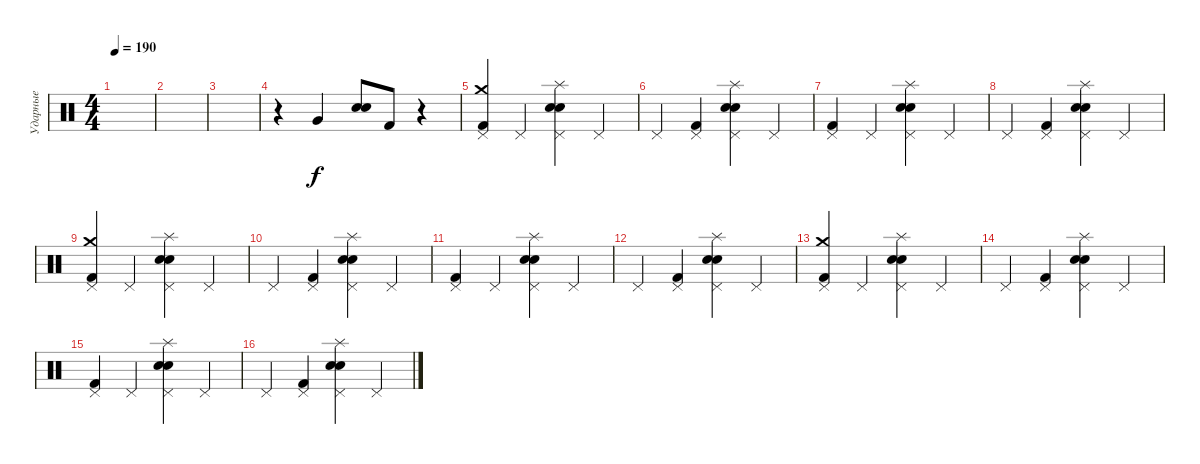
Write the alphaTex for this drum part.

\track ("Ударные" "Ударные") {instrument percussion}
\staff {score}
\articulation defaults
\ts (4 4)
\tempo 190
\clef neutral
\ks c
|
|
|
r.4 "Very Low Tom (hit)".4 ("Electric Snare (hit)" "Snare (hit) 2").8 "Kick (hit) 2".8 r.4 |
("Crash medium (hit)" "Pedal Hi-Hat (hit)" "Kick (hit) 2").4 "Pedal Hi-Hat (hit)".4 ("Splash (hit)" "Pedal Hi-Hat (hit)" "Electric Snare (hit)" "Snare (hit) 2").4 "Pedal Hi-Hat (hit)".4 |
"Pedal Hi-Hat (hit)".4 ("Pedal Hi-Hat (hit)" "Kick (hit) 2").4 ("Splash (hit)" "Pedal Hi-Hat (hit)" "Electric Snare (hit)" "Snare (hit) 2").4 "Pedal Hi-Hat (hit)".4 |
("Pedal Hi-Hat (hit)" "Kick (hit) 2").4 "Pedal Hi-Hat (hit)".4 ("Splash (hit)" "Pedal Hi-Hat (hit)" "Electric Snare (hit)" "Snare (hit) 2").4 "Pedal Hi-Hat (hit)".4 |
"Pedal Hi-Hat (hit)".4 ("Pedal Hi-Hat (hit)" "Kick (hit) 2").4 ("Splash (hit)" "Pedal Hi-Hat (hit)" "Electric Snare (hit)" "Snare (hit) 2").4 "Pedal Hi-Hat (hit)".4 |
("Crash medium (hit)" "Pedal Hi-Hat (hit)" "Kick (hit) 2").4 "Pedal Hi-Hat (hit)".4 ("Splash (hit)" "Pedal Hi-Hat (hit)" "Electric Snare (hit)" "Snare (hit) 2").4 "Pedal Hi-Hat (hit)".4 |
"Pedal Hi-Hat (hit)".4 ("Pedal Hi-Hat (hit)" "Kick (hit) 2").4 ("Splash (hit)" "Pedal Hi-Hat (hit)" "Electric Snare (hit)" "Snare (hit) 2").4 "Pedal Hi-Hat (hit)".4 |
("Pedal Hi-Hat (hit)" "Kick (hit) 2").4 "Pedal Hi-Hat (hit)".4 ("Splash (hit)" "Pedal Hi-Hat (hit)" "Electric Snare (hit)" "Snare (hit) 2").4 "Pedal Hi-Hat (hit)".4 |
"Pedal Hi-Hat (hit)".4 ("Pedal Hi-Hat (hit)" "Kick (hit) 2").4 ("Splash (hit)" "Pedal Hi-Hat (hit)" "Electric Snare (hit)" "Snare (hit) 2").4 "Pedal Hi-Hat (hit)".4 |
("Crash medium (hit)" "Pedal Hi-Hat (hit)" "Kick (hit) 2").4 "Pedal Hi-Hat (hit)".4 ("Splash (hit)" "Pedal Hi-Hat (hit)" "Electric Snare (hit)" "Snare (hit) 2").4 "Pedal Hi-Hat (hit)".4 |
"Pedal Hi-Hat (hit)".4 ("Pedal Hi-Hat (hit)" "Kick (hit) 2").4 ("Splash (hit)" "Pedal Hi-Hat (hit)" "Electric Snare (hit)" "Snare (hit) 2").4 "Pedal Hi-Hat (hit)".4 |
("Pedal Hi-Hat (hit)" "Kick (hit) 2").4 "Pedal Hi-Hat (hit)".4 ("Splash (hit)" "Pedal Hi-Hat (hit)" "Electric Snare (hit)" "Snare (hit) 2").4 "Pedal Hi-Hat (hit)".4 |
"Pedal Hi-Hat (hit)".4 ("Pedal Hi-Hat (hit)" "Kick (hit) 2").4 ("Splash (hit)" "Pedal Hi-Hat (hit)" "Electric Snare (hit)" "Snare (hit) 2").4 "Pedal Hi-Hat (hit)".4
